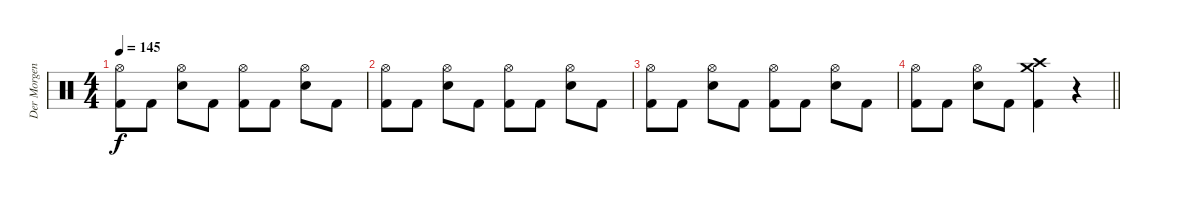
\track ("Der Morgenstern" "Der Morgen") {instrument percussion}
\staff {score}
\articulation defaults
\ts (4 4)
\tempo 145
\clef neutral
\ks c
("Hi-Hat (open)" "Kick (hit) 2").8{dy f} "Kick (hit) 2".8 ("Hi-Hat (open)" "Electric Snare (hit)").8 "Kick (hit) 2".8 ("Hi-Hat (open)" "Kick (hit) 2").8 "Kick (hit) 2".8 ("Hi-Hat (open)" "Electric Snare (hit)").8 "Kick (hit) 2".8 |
("Hi-Hat (open)" "Kick (hit) 2").8 "Kick (hit) 2".8 ("Hi-Hat (open)" "Electric Snare (hit)").8 "Kick (hit) 2".8 ("Hi-Hat (open)" "Kick (hit) 2").8 "Kick (hit) 2".8 ("Hi-Hat (open)" "Electric Snare (hit)").8 "Kick (hit) 2".8 |
("Hi-Hat (open)" "Kick (hit) 2").8 "Kick (hit) 2".8 ("Hi-Hat (open)" "Electric Snare (hit)").8 "Kick (hit) 2".8 ("Hi-Hat (open)" "Kick (hit) 2").8 "Kick (hit) 2".8 ("Hi-Hat (open)" "Electric Snare (hit)").8 "Kick (hit) 2".8 |
\barLineRight lightlight
("Hi-Hat (open)" "Kick (hit) 2").8 "Kick (hit) 2".8 ("Hi-Hat (open)" "Electric Snare (hit)").8 "Kick (hit) 2".8 ("Crash medium (hit)" "Crash high (hit)" "Kick (hit) 2").4 r.4
